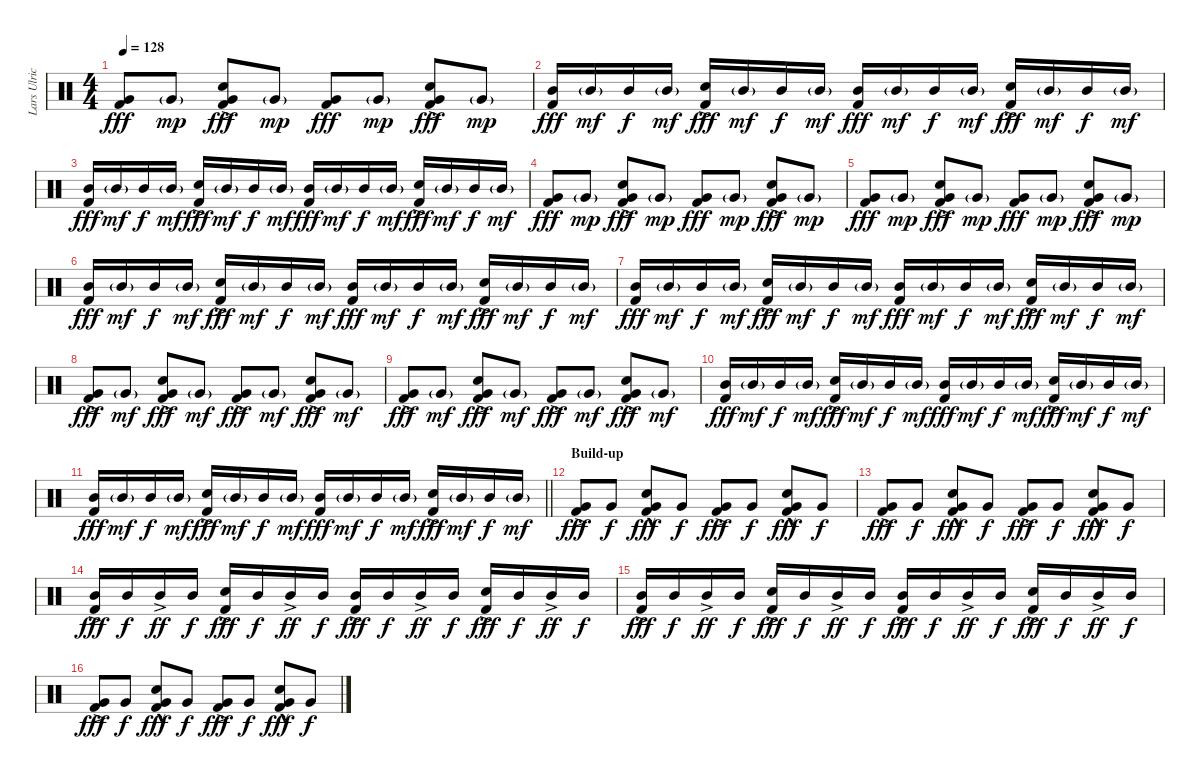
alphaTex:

\track ("Lars Ulrich (Drums)" "Lars Ulric") {instrument percussion}
\staff {score}
\articulation defaults
\ts (4 4)
\tempo 128
\clef neutral
\ks c
("Very Low Tom (hit)" "Kick (hit) 2").8{dy fff} "Very Low Tom (hit)"{g}.8{dy mp} ("Electric Snare (hit)"{ac} "Very Low Tom (hit)" "Kick (hit) 2").8{dy fff} "Very Low Tom (hit)"{g}.8{dy mp} ("Very Low Tom (hit)" "Kick (hit) 2").8{dy fff} "Very Low Tom (hit)"{g}.8{dy mp} ("Electric Snare (hit)"{ac} "Very Low Tom (hit)" "Kick (hit) 2").8{dy fff} "Very Low Tom (hit)"{g}.8{dy mp} |
("Mid Tom (hit)" "Kick (hit) 2").16{dy fff} "Mid Tom (hit)"{g}.16{dy mf} "Mid Tom (hit)".16{dy f} "Mid Tom (hit)"{g}.16{dy mf} ("Electric Snare (hit)"{ac} "Kick (hit) 2").16{dy fff} "Mid Tom (hit)"{g}.16{dy mf} "Mid Tom (hit)".16{dy f} "Mid Tom (hit)"{g}.16{dy mf} ("Mid Tom (hit)" "Kick (hit) 2").16{dy fff} "Mid Tom (hit)"{g}.16{dy mf} "Mid Tom (hit)".16{dy f} "Mid Tom (hit)"{g}.16{dy mf} ("Electric Snare (hit)"{ac} "Kick (hit) 2").16{dy fff} "Mid Tom (hit)"{g}.16{dy mf} "Mid Tom (hit)".16{dy f} "Mid Tom (hit)"{g}.16{dy mf} |
("Mid Tom (hit)" "Kick (hit) 2").16{dy fff} "Mid Tom (hit)"{g}.16{dy mf} "Mid Tom (hit)".16{dy f} "Mid Tom (hit)"{g}.16{dy mf} ("Electric Snare (hit)"{ac} "Kick (hit) 2").16{dy fff} "Mid Tom (hit)"{g}.16{dy mf} "Mid Tom (hit)".16{dy f} "Mid Tom (hit)"{g}.16{dy mf} ("Mid Tom (hit)" "Kick (hit) 2").16{dy fff} "Mid Tom (hit)"{g}.16{dy mf} "Mid Tom (hit)".16{dy f} "Mid Tom (hit)"{g}.16{dy mf} ("Electric Snare (hit)"{ac} "Kick (hit) 2").16{dy fff} "Mid Tom (hit)"{g}.16{dy mf} "Mid Tom (hit)".16{dy f} "Mid Tom (hit)"{g}.16{dy mf} |
("Very Low Tom (hit)" "Kick (hit) 2").8{dy fff} "Very Low Tom (hit)"{g}.8{dy mp} ("Electric Snare (hit)"{ac} "Very Low Tom (hit)"{ac} "Kick (hit) 2").8{dy fff} "Very Low Tom (hit)"{g}.8{dy mp} ("Very Low Tom (hit)" "Kick (hit) 2").8{dy fff} "Very Low Tom (hit)"{g}.8{dy mp} ("Electric Snare (hit)"{ac} "Very Low Tom (hit)"{ac} "Kick (hit) 2").8{dy fff} "Very Low Tom (hit)"{g}.8{dy mp} |
("Very Low Tom (hit)" "Kick (hit) 2").8{dy fff} "Very Low Tom (hit)"{g}.8{dy mp} ("Electric Snare (hit)"{ac} "Very Low Tom (hit)"{ac} "Kick (hit) 2").8{dy fff} "Very Low Tom (hit)"{g}.8{dy mp} ("Very Low Tom (hit)" "Kick (hit) 2").8{dy fff} "Very Low Tom (hit)"{g}.8{dy mp} ("Electric Snare (hit)"{ac} "Very Low Tom (hit)"{ac} "Kick (hit) 2").8{dy fff} "Very Low Tom (hit)"{g}.8{dy mp} |
("Mid Tom (hit)" "Kick (hit) 2").16{dy fff} "Mid Tom (hit)"{g}.16{dy mf} "Mid Tom (hit)".16{dy f} "Mid Tom (hit)"{g}.16{dy mf} ("Electric Snare (hit)"{ac} "Kick (hit) 2").16{dy fff} "Mid Tom (hit)"{g}.16{dy mf} "Mid Tom (hit)".16{dy f} "Mid Tom (hit)"{g}.16{dy mf} ("Mid Tom (hit)" "Kick (hit) 2").16{dy fff} "Mid Tom (hit)"{g}.16{dy mf} "Mid Tom (hit)".16{dy f} "Mid Tom (hit)"{g}.16{dy mf} ("Electric Snare (hit)"{ac} "Kick (hit) 2").16{dy fff} "Mid Tom (hit)"{g}.16{dy mf} "Mid Tom (hit)".16{dy f} "Mid Tom (hit)"{g}.16{dy mf} |
("Mid Tom (hit)" "Kick (hit) 2").16{dy fff} "Mid Tom (hit)"{g}.16{dy mf} "Mid Tom (hit)".16{dy f} "Mid Tom (hit)"{g}.16{dy mf} ("Electric Snare (hit)"{ac} "Kick (hit) 2").16{dy fff} "Mid Tom (hit)"{g}.16{dy mf} "Mid Tom (hit)".16{dy f} "Mid Tom (hit)"{g}.16{dy mf} ("Mid Tom (hit)" "Kick (hit) 2").16{dy fff} "Mid Tom (hit)"{g}.16{dy mf} "Mid Tom (hit)".16{dy f} "Mid Tom (hit)"{g}.16{dy mf} ("Electric Snare (hit)"{ac} "Kick (hit) 2").16{dy fff} "Mid Tom (hit)"{g}.16{dy mf} "Mid Tom (hit)".16{dy f} "Mid Tom (hit)"{g}.16{dy mf} |
("Very Low Tom (hit)"{ac} "Kick (hit) 2").8{dy fff} "Very Low Tom (hit)"{g}.8{dy mf} ("Electric Snare (hit)"{ac} "Very Low Tom (hit)"{ac} "Kick (hit) 2").8{dy fff} "Very Low Tom (hit)"{g}.8{dy mf} ("Very Low Tom (hit)"{ac} "Kick (hit) 2").8{dy fff} "Very Low Tom (hit)"{g}.8{dy mf} ("Electric Snare (hit)"{ac} "Very Low Tom (hit)"{ac} "Kick (hit) 2").8{dy fff} "Very Low Tom (hit)"{g}.8{dy mf} |
("Very Low Tom (hit)"{ac} "Kick (hit) 2").8{dy fff} "Very Low Tom (hit)"{g}.8{dy mf} ("Electric Snare (hit)"{ac} "Very Low Tom (hit)"{ac} "Kick (hit) 2").8{dy fff} "Very Low Tom (hit)"{g}.8{dy mf} ("Very Low Tom (hit)"{ac} "Kick (hit) 2").8{dy fff} "Very Low Tom (hit)"{g}.8{dy mf} ("Electric Snare (hit)"{ac} "Very Low Tom (hit)"{ac} "Kick (hit) 2").8{dy fff} "Very Low Tom (hit)"{g}.8{dy mf} |
("Mid Tom (hit)" "Kick (hit) 2").16{dy fff} "Mid Tom (hit)"{g}.16{dy mf} "Mid Tom (hit)".16{dy f} "Mid Tom (hit)"{g}.16{dy mf} ("Electric Snare (hit)"{ac} "Kick (hit) 2").16{dy fff} "Mid Tom (hit)"{g}.16{dy mf} "Mid Tom (hit)".16{dy f} "Mid Tom (hit)"{g}.16{dy mf} ("Mid Tom (hit)" "Kick (hit) 2").16{dy fff} "Mid Tom (hit)"{g}.16{dy mf} "Mid Tom (hit)".16{dy f} "Mid Tom (hit)"{g}.16{dy mf} ("Electric Snare (hit)"{ac} "Kick (hit) 2").16{dy fff} "Mid Tom (hit)"{g}.16{dy mf} "Mid Tom (hit)".16{dy f} "Mid Tom (hit)"{g}.16{dy mf} |
\barLineRight lightlight
("Mid Tom (hit)" "Kick (hit) 2").16{dy fff} "Mid Tom (hit)"{g}.16{dy mf} "Mid Tom (hit)".16{dy f} "Mid Tom (hit)"{g}.16{dy mf} ("Electric Snare (hit)"{ac} "Kick (hit) 2").16{dy fff} "Mid Tom (hit)"{g}.16{dy mf} "Mid Tom (hit)".16{dy f} "Mid Tom (hit)"{g}.16{dy mf} ("Mid Tom (hit)" "Kick (hit) 2").16{dy fff} "Mid Tom (hit)"{g}.16{dy mf} "Mid Tom (hit)".16{dy f} "Mid Tom (hit)"{g}.16{dy mf} ("Electric Snare (hit)"{ac} "Kick (hit) 2").16{dy fff} "Mid Tom (hit)"{g}.16{dy mf} "Mid Tom (hit)".16{dy f} "Mid Tom (hit)"{g}.16{dy mf} |
\section ("" "Build-up")
("Very Low Tom (hit)"{ac} "Kick (hit) 2").8{dy fff} "Very Low Tom (hit)".8{dy f} ("Electric Snare (hit)"{hac} "Very Low Tom (hit)"{hac} "Kick (hit) 2").8{dy fff} "Very Low Tom (hit)".8{dy f} ("Very Low Tom (hit)"{ac} "Kick (hit) 2").8{dy fff} "Very Low Tom (hit)".8{dy f} ("Electric Snare (hit)"{hac} "Very Low Tom (hit)"{hac} "Kick (hit) 2").8{dy fff} "Very Low Tom (hit)".8{dy f} |
("Very Low Tom (hit)"{ac} "Kick (hit) 2").8{dy fff} "Very Low Tom (hit)".8{dy f} ("Electric Snare (hit)"{hac} "Very Low Tom (hit)"{hac} "Kick (hit) 2").8{dy fff} "Very Low Tom (hit)".8{dy f} ("Very Low Tom (hit)"{ac} "Kick (hit) 2").8{dy fff} "Very Low Tom (hit)".8{dy f} ("Electric Snare (hit)"{hac} "Very Low Tom (hit)"{hac} "Kick (hit) 2").8{dy fff} "Very Low Tom (hit)".8{dy f} |
("Mid Tom (hit)"{ac} "Kick (hit) 2").16{dy fff} "Mid Tom (hit)".16{dy f} "Mid Tom (hit)"{ac}.16{dy ff} "Mid Tom (hit)".16{dy f} ("Electric Snare (hit)"{ac} "Kick (hit) 2").16{dy fff} "Mid Tom (hit)".16{dy f} "Mid Tom (hit)"{ac}.16{dy ff} "Mid Tom (hit)".16{dy f} ("Mid Tom (hit)"{ac} "Kick (hit) 2").16{dy fff} "Mid Tom (hit)".16{dy f} "Mid Tom (hit)"{ac}.16{dy ff} "Mid Tom (hit)".16{dy f} ("Electric Snare (hit)"{ac} "Kick (hit) 2").16{dy fff} "Mid Tom (hit)".16{dy f} "Mid Tom (hit)"{ac}.16{dy ff} "Mid Tom (hit)".16{dy f} |
("Mid Tom (hit)"{ac} "Kick (hit) 2").16{dy fff} "Mid Tom (hit)".16{dy f} "Mid Tom (hit)"{ac}.16{dy ff} "Mid Tom (hit)".16{dy f} ("Electric Snare (hit)"{ac} "Kick (hit) 2").16{dy fff} "Mid Tom (hit)".16{dy f} "Mid Tom (hit)"{ac}.16{dy ff} "Mid Tom (hit)".16{dy f} ("Mid Tom (hit)"{ac} "Kick (hit) 2").16{dy fff} "Mid Tom (hit)".16{dy f} "Mid Tom (hit)"{ac}.16{dy ff} "Mid Tom (hit)".16{dy f} ("Electric Snare (hit)"{ac} "Kick (hit) 2").16{dy fff} "Mid Tom (hit)".16{dy f} "Mid Tom (hit)"{ac}.16{dy ff} "Mid Tom (hit)".16{dy f} |
("Very Low Tom (hit)"{ac} "Kick (hit) 2").8{dy fff} "Very Low Tom (hit)".8{dy f} ("Electric Snare (hit)"{hac} "Very Low Tom (hit)"{hac} "Kick (hit) 2").8{dy fff} "Very Low Tom (hit)".8{dy f} ("Very Low Tom (hit)"{ac} "Kick (hit) 2").8{dy fff} "Very Low Tom (hit)".8{dy f} ("Electric Snare (hit)"{hac} "Very Low Tom (hit)"{hac} "Kick (hit) 2").8{dy fff} "Very Low Tom (hit)".8{dy f}
